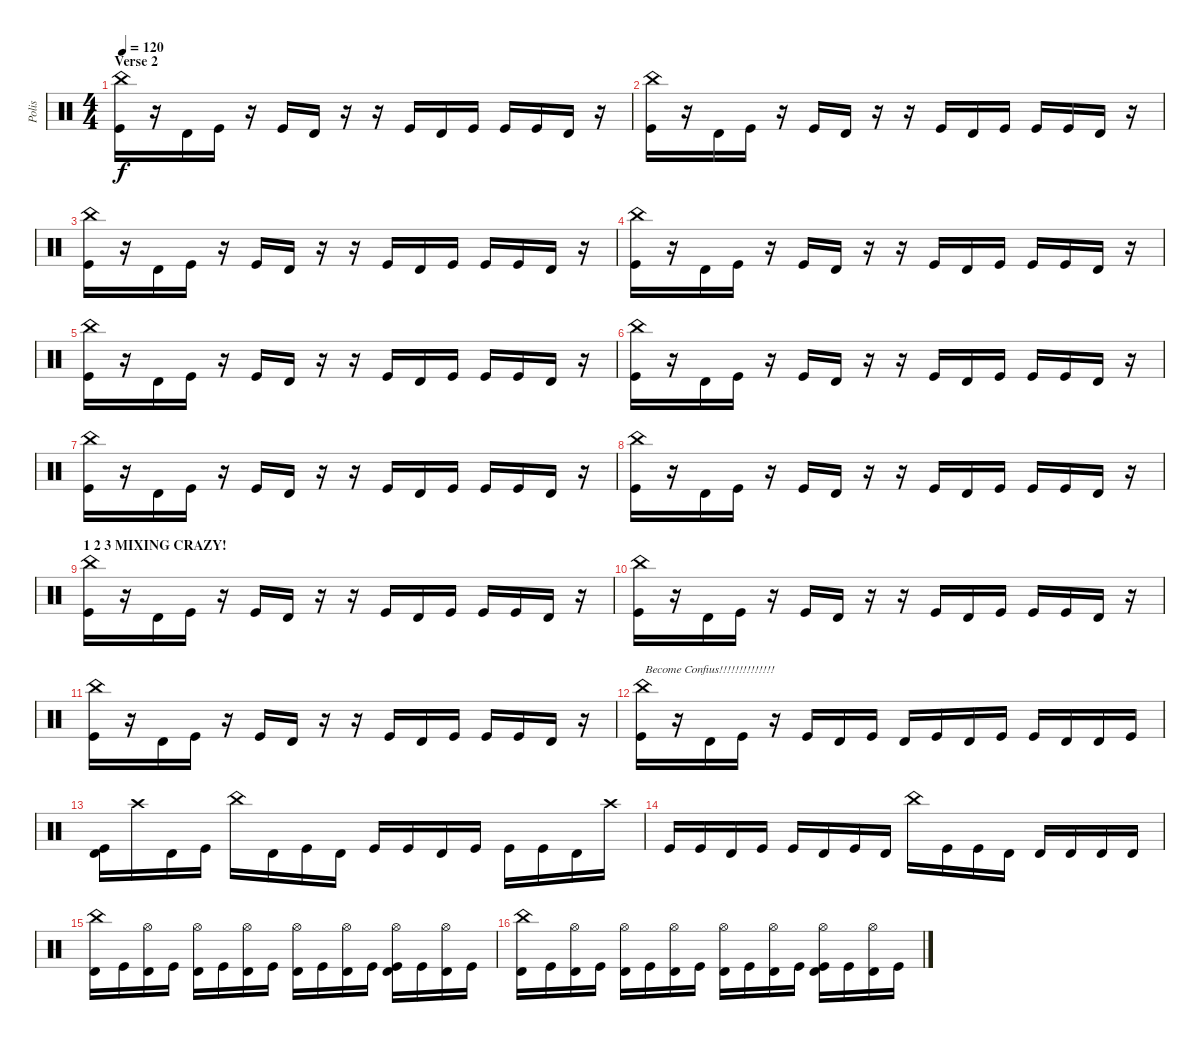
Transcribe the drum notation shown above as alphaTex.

\track ("Polis" "Polis") {instrument percussion}
\staff {score}
\articulation defaults
\ts (4 4)
\section ("" "Verse 2")
\tempo 120
\clef neutral
\ks c
("Kick (hit)" "China (hit)").16{dy f} r.16 "Timbale high (hit)".16 "Kick (hit)".16 r.16 "Kick (hit)".16 "Timbale high (hit)".16 r.16 r.16 "Kick (hit)".16 "Timbale high (hit)".16 "Kick (hit)".16 "Kick (hit)".16 "Kick (hit)".16 "Timbale high (hit)".16 r.16 |
("Kick (hit)" "China (hit)").16 r.16 "Timbale high (hit)".16 "Kick (hit)".16 r.16 "Kick (hit)".16 "Timbale high (hit)".16 r.16 r.16 "Kick (hit)".16 "Timbale high (hit)".16 "Kick (hit)".16 "Kick (hit)".16 "Kick (hit)".16 "Timbale high (hit)".16 r.16 |
("Kick (hit)" "China (hit)").16 r.16 "Timbale high (hit)".16 "Kick (hit)".16 r.16 "Kick (hit)".16 "Timbale high (hit)".16 r.16 r.16 "Kick (hit)".16 "Timbale high (hit)".16 "Kick (hit)".16 "Kick (hit)".16 "Kick (hit)".16 "Timbale high (hit)".16 r.16 |
("Kick (hit)" "China (hit)").16 r.16 "Timbale high (hit)".16 "Kick (hit)".16 r.16 "Kick (hit)".16 "Timbale high (hit)".16 r.16 r.16 "Kick (hit)".16 "Timbale high (hit)".16 "Kick (hit)".16 "Kick (hit)".16 "Kick (hit)".16 "Timbale high (hit)".16 r.16 |
("Kick (hit)" "China (hit)").16 r.16 "Timbale high (hit)".16 "Kick (hit)".16 r.16 "Kick (hit)".16 "Timbale high (hit)".16 r.16 r.16 "Kick (hit)".16 "Timbale high (hit)".16 "Kick (hit)".16 "Kick (hit)".16 "Kick (hit)".16 "Timbale high (hit)".16 r.16 |
("Kick (hit)" "China (hit)").16 r.16 "Timbale high (hit)".16 "Kick (hit)".16 r.16 "Kick (hit)".16 "Timbale high (hit)".16 r.16 r.16 "Kick (hit)".16 "Timbale high (hit)".16 "Kick (hit)".16 "Kick (hit)".16 "Kick (hit)".16 "Timbale high (hit)".16 r.16 |
("Kick (hit)" "China (hit)").16 r.16 "Timbale high (hit)".16 "Kick (hit)".16 r.16 "Kick (hit)".16 "Timbale high (hit)".16 r.16 r.16 "Kick (hit)".16 "Timbale high (hit)".16 "Kick (hit)".16 "Kick (hit)".16 "Kick (hit)".16 "Timbale high (hit)".16 r.16 |
("Kick (hit)" "China (hit)").16 r.16 "Timbale high (hit)".16 "Kick (hit)".16 r.16 "Kick (hit)".16 "Timbale high (hit)".16 r.16 r.16 "Kick (hit)".16 "Timbale high (hit)".16 "Kick (hit)".16 "Kick (hit)".16 "Kick (hit)".16 "Timbale high (hit)".16 r.16 |
\section ("" "1 2 3 MIXING CRAZY!")
("Kick (hit)" "China (hit)").16 r.16 "Timbale high (hit)".16 "Kick (hit)".16 r.16 "Kick (hit)".16 "Timbale high (hit)".16 r.16 r.16 "Kick (hit)".16 "Timbale high (hit)".16 "Kick (hit)".16 "Kick (hit)".16 "Kick (hit)".16 "Timbale high (hit)".16 r.16 |
("Kick (hit)" "China (hit)").16 r.16 "Timbale high (hit)".16 "Kick (hit)".16 r.16 "Kick (hit)".16 "Timbale high (hit)".16 r.16 r.16 "Kick (hit)".16 "Timbale high (hit)".16 "Kick (hit)".16 "Kick (hit)".16 "Kick (hit)".16 "Timbale high (hit)".16 r.16 |
("Kick (hit)" "China (hit)").16 r.16 "Timbale high (hit)".16 "Kick (hit)".16 r.16 "Kick (hit)".16 "Timbale high (hit)".16 r.16 r.16 "Kick (hit)".16 "Timbale high (hit)".16 "Kick (hit)".16 "Kick (hit)".16 "Kick (hit)".16 "Timbale high (hit)".16 r.16 |
("Kick (hit)" "China (hit)").16{txt "Become Confius!!!!!!!!!!!!!!"} r.16 "Timbale high (hit)".16 "Kick (hit)".16 r.16 "Kick (hit)".16 "Timbale high (hit)".16 "Kick (hit)".16 "Timbale high (hit)".16 "Kick (hit)".16 "Timbale high (hit)".16 "Kick (hit)".16 "Kick (hit)".16 "Timbale high (hit)".16 "Timbale high (hit)".16 "Kick (hit)".16 |
("Kick (hit)" "Timbale high (hit)").16 "Crash high (hit)".16 "Timbale high (hit)".16 "Kick (hit)".16 "China (hit)".16 "Timbale high (hit)".16 "Kick (hit)".16 "Timbale high (hit)".16 "Kick (hit)".16 "Kick (hit)".16 "Timbale high (hit)".16 "Kick (hit)".16 "Kick (hit)".16 "Kick (hit)".16 "Timbale high (hit)".16 "Crash high (hit)".16 |
"Kick (hit)".16 "Kick (hit)".16 "Timbale high (hit)".16 "Kick (hit)".16 "Kick (hit)".16 "Timbale high (hit)".16 "Kick (hit)".16 "Timbale high (hit)".16 "China (hit)".16 "Kick (hit)".16 "Kick (hit)".16 "Timbale high (hit)".16 "Timbale high (hit)".16 "Timbale high (hit)".16 "Timbale high (hit)".16 "Timbale high (hit)".16 |
("Timbale high (hit)" "China (hit)").16 "Kick (hit)".16 ("Timbale high (hit)" "Hi-Hat (open)").16 "Kick (hit)".16 ("Timbale high (hit)" "Hi-Hat (open)").16 "Kick (hit)".16 ("Timbale high (hit)" "Hi-Hat (open)").16 "Kick (hit)".16 ("Timbale high (hit)" "Hi-Hat (open)").16 "Kick (hit)".16 ("Timbale high (hit)" "Hi-Hat (open)").16 "Kick (hit)".16 ("Kick (hit)" "Timbale high (hit)" "Hi-Hat (open)").16 "Kick (hit)".16 ("Timbale high (hit)" "Hi-Hat (open)").16 "Kick (hit)".16 |
("Timbale high (hit)" "China (hit)").16 "Kick (hit)".16 ("Timbale high (hit)" "Hi-Hat (open)").16 "Kick (hit)".16 ("Timbale high (hit)" "Hi-Hat (open)").16 "Kick (hit)".16 ("Timbale high (hit)" "Hi-Hat (open)").16 "Kick (hit)".16 ("Timbale high (hit)" "Hi-Hat (open)").16 "Kick (hit)".16 ("Timbale high (hit)" "Hi-Hat (open)").16 "Kick (hit)".16 ("Kick (hit)" "Timbale high (hit)" "Hi-Hat (open)").16 "Kick (hit)".16 ("Timbale high (hit)" "Hi-Hat (open)").16 "Kick (hit)".16
